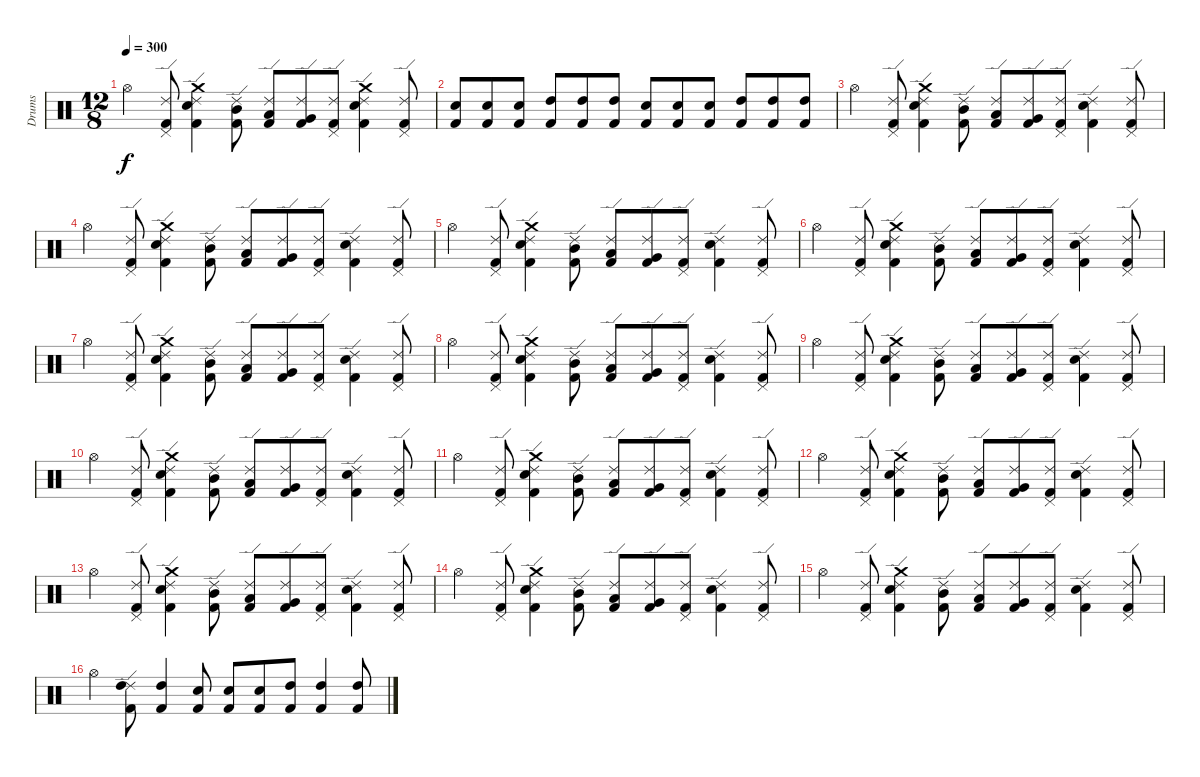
\track ("Drums" "Drums") {instrument percussion}
\staff {score}
\articulation defaults
\ts (12 8)
\tempo 300
\clef neutral
\ks c "Hi-Hat (open)".4{dy f}
("Ride (edge) 2" "Pedal Hi-Hat (hit)" "Kick (hit) 2").8 ("Ride (edge) 2" "Crash medium (hit)" "Snare (hit) 2" "Kick (hit) 2").4 ("Ride (edge) 2" "Mid Tom (hit)" "Kick (hit) 2").8 ("Ride (edge) 2" "Low Tom (hit)" "Kick (hit) 2").8 ("Ride (edge) 2" "Very Low Tom (hit)" "Kick (hit) 2").8 ("Ride (edge) 2" "Pedal Hi-Hat (hit)" "Kick (hit) 2").8 ("Ride (edge) 2" "Crash medium (hit)" "Snare (hit) 2" "Kick (hit) 2").4 ("Ride (edge) 2" "Pedal Hi-Hat (hit)" "Kick (hit) 2").8 |
("Snare (hit) 2" "Kick (hit) 2").8 ("Snare (hit) 2" "Kick (hit) 2").8 ("Snare (hit) 2" "Kick (hit) 2").8 ("High Tom (hit)" "Kick (hit) 2").8 ("High Tom (hit)" "Kick (hit) 2").8 ("High Tom (hit)" "Kick (hit) 2").8 ("Snare (hit) 2" "Kick (hit) 2").8 ("Snare (hit) 2" "Kick (hit) 2").8 ("Snare (hit) 2" "Kick (hit) 2").8 ("High Tom (hit)" "Kick (hit) 2").8 ("High Tom (hit)" "Kick (hit) 2").8 ("High Tom (hit)" "Kick (hit) 2").8 |
"Hi-Hat (open)".4 ("Ride (edge) 2" "Pedal Hi-Hat (hit)" "Kick (hit) 2").8 ("Ride (edge) 2" "Crash medium (hit)" "Snare (hit) 2" "Kick (hit) 2").4 ("Ride (edge) 2" "Mid Tom (hit)" "Kick (hit) 2").8 ("Ride (edge) 2" "Low Tom (hit)" "Kick (hit) 2").8 ("Ride (edge) 2" "Very Low Tom (hit)" "Kick (hit) 2").8 ("Ride (edge) 2" "Pedal Hi-Hat (hit)" "Kick (hit) 2").8 ("Ride (edge) 2" "Snare (hit) 2" "Kick (hit) 2").4 ("Ride (edge) 2" "Pedal Hi-Hat (hit)" "Kick (hit) 2").8 |
"Hi-Hat (open)".4 ("Ride (edge) 2" "Pedal Hi-Hat (hit)" "Kick (hit) 2").8 ("Ride (edge) 2" "Crash medium (hit)" "Snare (hit) 2" "Kick (hit) 2").4 ("Ride (edge) 2" "Mid Tom (hit)" "Kick (hit) 2").8 ("Ride (edge) 2" "Low Tom (hit)" "Kick (hit) 2").8 ("Ride (edge) 2" "Very Low Tom (hit)" "Kick (hit) 2").8 ("Ride (edge) 2" "Pedal Hi-Hat (hit)" "Kick (hit) 2").8 ("Ride (edge) 2" "Snare (hit) 2" "Kick (hit) 2").4 ("Ride (edge) 2" "Pedal Hi-Hat (hit)" "Kick (hit) 2").8 |
"Hi-Hat (open)".4 ("Ride (edge) 2" "Pedal Hi-Hat (hit)" "Kick (hit) 2").8 ("Ride (edge) 2" "Crash medium (hit)" "Snare (hit) 2" "Kick (hit) 2").4 ("Ride (edge) 2" "Mid Tom (hit)" "Kick (hit) 2").8 ("Ride (edge) 2" "Low Tom (hit)" "Kick (hit) 2").8 ("Ride (edge) 2" "Very Low Tom (hit)" "Kick (hit) 2").8 ("Ride (edge) 2" "Pedal Hi-Hat (hit)" "Kick (hit) 2").8 ("Ride (edge) 2" "Snare (hit) 2" "Kick (hit) 2").4 ("Ride (edge) 2" "Pedal Hi-Hat (hit)" "Kick (hit) 2").8 |
"Hi-Hat (open)".4 ("Ride (edge) 2" "Pedal Hi-Hat (hit)" "Kick (hit) 2").8 ("Ride (edge) 2" "Crash medium (hit)" "Snare (hit) 2" "Kick (hit) 2").4 ("Ride (edge) 2" "Mid Tom (hit)" "Kick (hit) 2").8 ("Ride (edge) 2" "Low Tom (hit)" "Kick (hit) 2").8 ("Ride (edge) 2" "Very Low Tom (hit)" "Kick (hit) 2").8 ("Ride (edge) 2" "Pedal Hi-Hat (hit)" "Kick (hit) 2").8 ("Ride (edge) 2" "Snare (hit) 2" "Kick (hit) 2").4 ("Ride (edge) 2" "Pedal Hi-Hat (hit)" "Kick (hit) 2").8 |
"Hi-Hat (open)".4 ("Ride (edge) 2" "Pedal Hi-Hat (hit)" "Kick (hit) 2").8 ("Ride (edge) 2" "Crash medium (hit)" "Snare (hit) 2" "Kick (hit) 2").4 ("Ride (edge) 2" "Mid Tom (hit)" "Kick (hit) 2").8 ("Ride (edge) 2" "Low Tom (hit)" "Kick (hit) 2").8 ("Ride (edge) 2" "Very Low Tom (hit)" "Kick (hit) 2").8 ("Ride (edge) 2" "Pedal Hi-Hat (hit)" "Kick (hit) 2").8 ("Ride (edge) 2" "Snare (hit) 2" "Kick (hit) 2").4 ("Ride (edge) 2" "Pedal Hi-Hat (hit)" "Kick (hit) 2").8 |
"Hi-Hat (open)".4 ("Ride (edge) 2" "Pedal Hi-Hat (hit)" "Kick (hit) 2").8 ("Ride (edge) 2" "Crash medium (hit)" "Snare (hit) 2" "Kick (hit) 2").4 ("Ride (edge) 2" "Mid Tom (hit)" "Kick (hit) 2").8 ("Ride (edge) 2" "Low Tom (hit)" "Kick (hit) 2").8 ("Ride (edge) 2" "Very Low Tom (hit)" "Kick (hit) 2").8 ("Ride (edge) 2" "Pedal Hi-Hat (hit)" "Kick (hit) 2").8 ("Ride (edge) 2" "Snare (hit) 2" "Kick (hit) 2").4 ("Ride (edge) 2" "Pedal Hi-Hat (hit)" "Kick (hit) 2").8 |
"Hi-Hat (open)".4 ("Ride (edge) 2" "Pedal Hi-Hat (hit)" "Kick (hit) 2").8 ("Ride (edge) 2" "Crash medium (hit)" "Snare (hit) 2" "Kick (hit) 2").4 ("Ride (edge) 2" "Mid Tom (hit)" "Kick (hit) 2").8 ("Ride (edge) 2" "Low Tom (hit)" "Kick (hit) 2").8 ("Ride (edge) 2" "Very Low Tom (hit)" "Kick (hit) 2").8 ("Ride (edge) 2" "Pedal Hi-Hat (hit)" "Kick (hit) 2").8 ("Ride (edge) 2" "Snare (hit) 2" "Kick (hit) 2").4 ("Ride (edge) 2" "Pedal Hi-Hat (hit)" "Kick (hit) 2").8 |
"Hi-Hat (open)".4 ("Ride (edge) 2" "Pedal Hi-Hat (hit)" "Kick (hit) 2").8 ("Ride (edge) 2" "Crash medium (hit)" "Snare (hit) 2" "Kick (hit) 2").4 ("Ride (edge) 2" "Mid Tom (hit)" "Kick (hit) 2").8 ("Ride (edge) 2" "Low Tom (hit)" "Kick (hit) 2").8 ("Ride (edge) 2" "Very Low Tom (hit)" "Kick (hit) 2").8 ("Ride (edge) 2" "Pedal Hi-Hat (hit)" "Kick (hit) 2").8 ("Ride (edge) 2" "Snare (hit) 2" "Kick (hit) 2").4 ("Ride (edge) 2" "Pedal Hi-Hat (hit)" "Kick (hit) 2").8 |
"Hi-Hat (open)".4 ("Ride (edge) 2" "Pedal Hi-Hat (hit)" "Kick (hit) 2").8 ("Ride (edge) 2" "Crash medium (hit)" "Snare (hit) 2" "Kick (hit) 2").4 ("Ride (edge) 2" "Mid Tom (hit)" "Kick (hit) 2").8 ("Ride (edge) 2" "Low Tom (hit)" "Kick (hit) 2").8 ("Ride (edge) 2" "Very Low Tom (hit)" "Kick (hit) 2").8 ("Ride (edge) 2" "Pedal Hi-Hat (hit)" "Kick (hit) 2").8 ("Ride (edge) 2" "Snare (hit) 2" "Kick (hit) 2").4 ("Ride (edge) 2" "Pedal Hi-Hat (hit)" "Kick (hit) 2").8 |
"Hi-Hat (open)".4 ("Ride (edge) 2" "Pedal Hi-Hat (hit)" "Kick (hit) 2").8 ("Ride (edge) 2" "Crash medium (hit)" "Snare (hit) 2" "Kick (hit) 2").4 ("Ride (edge) 2" "Mid Tom (hit)" "Kick (hit) 2").8 ("Ride (edge) 2" "Low Tom (hit)" "Kick (hit) 2").8 ("Ride (edge) 2" "Very Low Tom (hit)" "Kick (hit) 2").8 ("Ride (edge) 2" "Pedal Hi-Hat (hit)" "Kick (hit) 2").8 ("Ride (edge) 2" "Snare (hit) 2" "Kick (hit) 2").4 ("Ride (edge) 2" "Pedal Hi-Hat (hit)" "Kick (hit) 2").8 |
"Hi-Hat (open)".4 ("Ride (edge) 2" "Pedal Hi-Hat (hit)" "Kick (hit) 2").8 ("Ride (edge) 2" "Crash medium (hit)" "Snare (hit) 2" "Kick (hit) 2").4 ("Ride (edge) 2" "Mid Tom (hit)" "Kick (hit) 2").8 ("Ride (edge) 2" "Low Tom (hit)" "Kick (hit) 2").8 ("Ride (edge) 2" "Very Low Tom (hit)" "Kick (hit) 2").8 ("Ride (edge) 2" "Pedal Hi-Hat (hit)" "Kick (hit) 2").8 ("Ride (edge) 2" "Snare (hit) 2" "Kick (hit) 2").4 ("Ride (edge) 2" "Pedal Hi-Hat (hit)" "Kick (hit) 2").8 |
"Hi-Hat (open)".4 ("Ride (edge) 2" "Pedal Hi-Hat (hit)" "Kick (hit) 2").8 ("Ride (edge) 2" "Crash medium (hit)" "Snare (hit) 2" "Kick (hit) 2").4 ("Ride (edge) 2" "Mid Tom (hit)" "Kick (hit) 2").8 ("Ride (edge) 2" "Low Tom (hit)" "Kick (hit) 2").8 ("Ride (edge) 2" "Very Low Tom (hit)" "Kick (hit) 2").8 ("Ride (edge) 2" "Pedal Hi-Hat (hit)" "Kick (hit) 2").8 ("Ride (edge) 2" "Snare (hit) 2" "Kick (hit) 2").4 ("Ride (edge) 2" "Pedal Hi-Hat (hit)" "Kick (hit) 2").8 |
"Hi-Hat (open)".4 ("Ride (edge) 2" "Pedal Hi-Hat (hit)" "Kick (hit) 2").8 ("Ride (edge) 2" "Crash medium (hit)" "Snare (hit) 2" "Kick (hit) 2").4 ("Ride (edge) 2" "Mid Tom (hit)" "Kick (hit) 2").8 ("Ride (edge) 2" "Low Tom (hit)" "Kick (hit) 2").8 ("Ride (edge) 2" "Very Low Tom (hit)" "Kick (hit) 2").8 ("Ride (edge) 2" "Pedal Hi-Hat (hit)" "Kick (hit) 2").8 ("Ride (edge) 2" "Snare (hit) 2" "Kick (hit) 2").4 ("Ride (edge) 2" "Pedal Hi-Hat (hit)" "Kick (hit) 2").8 |
"Hi-Hat (open)".4 ("Ride (edge) 2" "High Tom (hit)" "Kick (hit) 2").8 ("High Tom (hit)" "Kick (hit) 2").4 ("Snare (hit) 2" "Kick (hit) 2").8 ("Snare (hit) 2" "Kick (hit) 2").8 ("Snare (hit) 2" "Kick (hit) 2").8 ("High Tom (hit)" "Kick (hit) 2").8 ("High Tom (hit)" "Kick (hit) 2").4 ("High Tom (hit)" "Kick (hit) 2").8
